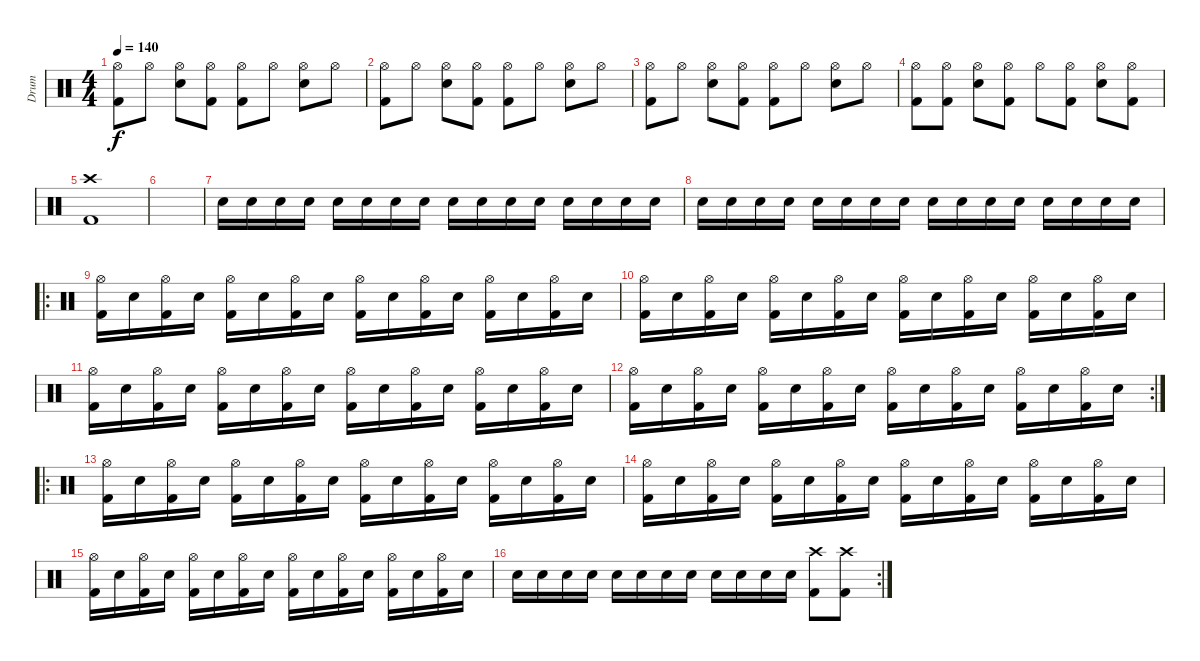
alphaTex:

\track ("Drum" "Drum") {instrument percussion}
\staff {score}
\articulation defaults
\ts (4 4)
\tempo 140
\clef neutral
\ks c
("Kick (hit) 2" "Hi-Hat (open)").8{dy f} "Hi-Hat (open)".8 ("Electric Snare (hit)" "Hi-Hat (open)").8 ("Kick (hit) 2" "Hi-Hat (open)").8 ("Kick (hit) 2" "Hi-Hat (open)").8 "Hi-Hat (open)".8 ("Electric Snare (hit)" "Hi-Hat (open)").8 "Hi-Hat (open)".8 |
("Kick (hit) 2" "Hi-Hat (open)").8 "Hi-Hat (open)".8 ("Electric Snare (hit)" "Hi-Hat (open)").8 ("Kick (hit) 2" "Hi-Hat (open)").8 ("Kick (hit) 2" "Hi-Hat (open)").8 "Hi-Hat (open)".8 ("Electric Snare (hit)" "Hi-Hat (open)").8 "Hi-Hat (open)".8 |
("Kick (hit) 2" "Hi-Hat (open)").8 "Hi-Hat (open)".8 ("Electric Snare (hit)" "Hi-Hat (open)").8 ("Kick (hit) 2" "Hi-Hat (open)").8 ("Kick (hit) 2" "Hi-Hat (open)").8 "Hi-Hat (open)".8 ("Electric Snare (hit)" "Hi-Hat (open)").8 "Hi-Hat (open)".8 |
("Kick (hit) 2" "Hi-Hat (open)").8 ("Kick (hit) 2" "Hi-Hat (open)").8 ("Electric Snare (hit)" "Hi-Hat (open)").8 ("Kick (hit) 2" "Hi-Hat (open)").8 "Hi-Hat (open)".8 ("Kick (hit) 2" "Hi-Hat (open)").8 ("Electric Snare (hit)" "Hi-Hat (open)").8 ("Kick (hit) 2" "Hi-Hat (open)").8 |
("Kick (hit) 2" "Crash high (hit)").1 |
|
"Electric Snare (hit)".16{volume 4} "Electric Snare (hit)".16 "Electric Snare (hit)".16 "Electric Snare (hit)".16{volume 13} "Electric Snare (hit)".16 "Electric Snare (hit)".16 "Electric Snare (hit)".16 "Electric Snare (hit)".16 "Electric Snare (hit)".16 "Electric Snare (hit)".16 "Electric Snare (hit)".16 "Electric Snare (hit)".16 "Electric Snare (hit)".16 "Electric Snare (hit)".16 "Electric Snare (hit)".16 "Electric Snare (hit)".16 |
"Electric Snare (hit)".16 "Electric Snare (hit)".16 "Electric Snare (hit)".16 "Electric Snare (hit)".16 "Electric Snare (hit)".16 "Electric Snare (hit)".16 "Electric Snare (hit)".16 "Electric Snare (hit)".16 "Electric Snare (hit)".16 "Electric Snare (hit)".16 "Electric Snare (hit)".16 "Electric Snare (hit)".16 "Electric Snare (hit)".16 "Electric Snare (hit)".16 "Electric Snare (hit)".16 "Electric Snare (hit)".16 |
\ro
("Kick (hit) 2" "Hi-Hat (open)").16 "Electric Snare (hit)".16 ("Kick (hit) 2" "Hi-Hat (open)").16 "Electric Snare (hit)".16 ("Kick (hit) 2" "Hi-Hat (open)").16 "Electric Snare (hit)".16 ("Kick (hit) 2" "Hi-Hat (open)").16 "Electric Snare (hit)".16 ("Kick (hit) 2" "Hi-Hat (open)").16 "Electric Snare (hit)".16 ("Kick (hit) 2" "Hi-Hat (open)").16 "Electric Snare (hit)".16 ("Kick (hit) 2" "Hi-Hat (open)").16 "Electric Snare (hit)".16 ("Kick (hit) 2" "Hi-Hat (open)").16 "Electric Snare (hit)".16 |
("Kick (hit) 2" "Hi-Hat (open)").16 "Electric Snare (hit)".16 ("Kick (hit) 2" "Hi-Hat (open)").16 "Electric Snare (hit)".16 ("Kick (hit) 2" "Hi-Hat (open)").16 "Electric Snare (hit)".16 ("Kick (hit) 2" "Hi-Hat (open)").16 "Electric Snare (hit)".16 ("Kick (hit) 2" "Hi-Hat (open)").16 "Electric Snare (hit)".16 ("Kick (hit) 2" "Hi-Hat (open)").16 "Electric Snare (hit)".16 ("Kick (hit) 2" "Hi-Hat (open)").16 "Electric Snare (hit)".16 ("Kick (hit) 2" "Hi-Hat (open)").16 "Electric Snare (hit)".16 |
("Kick (hit) 2" "Hi-Hat (open)").16 "Electric Snare (hit)".16 ("Kick (hit) 2" "Hi-Hat (open)").16 "Electric Snare (hit)".16 ("Kick (hit) 2" "Hi-Hat (open)").16 "Electric Snare (hit)".16 ("Kick (hit) 2" "Hi-Hat (open)").16 "Electric Snare (hit)".16 ("Kick (hit) 2" "Hi-Hat (open)").16 "Electric Snare (hit)".16 ("Kick (hit) 2" "Hi-Hat (open)").16 "Electric Snare (hit)".16 ("Kick (hit) 2" "Hi-Hat (open)").16 "Electric Snare (hit)".16 ("Kick (hit) 2" "Hi-Hat (open)").16 "Electric Snare (hit)".16 |
\rc 2
("Kick (hit) 2" "Hi-Hat (open)").16 "Electric Snare (hit)".16 ("Kick (hit) 2" "Hi-Hat (open)").16 "Electric Snare (hit)".16 ("Kick (hit) 2" "Hi-Hat (open)").16 "Electric Snare (hit)".16 ("Kick (hit) 2" "Hi-Hat (open)").16 "Electric Snare (hit)".16 ("Kick (hit) 2" "Hi-Hat (open)").16 "Electric Snare (hit)".16 ("Kick (hit) 2" "Hi-Hat (open)").16 "Electric Snare (hit)".16 ("Kick (hit) 2" "Hi-Hat (open)").16 "Electric Snare (hit)".16 ("Kick (hit) 2" "Hi-Hat (open)").16 "Electric Snare (hit)".16 |
\ro
("Kick (hit) 2" "Hi-Hat (open)").16 "Electric Snare (hit)".16 ("Kick (hit) 2" "Hi-Hat (open)").16 "Electric Snare (hit)".16 ("Kick (hit) 2" "Hi-Hat (open)").16 "Electric Snare (hit)".16 ("Kick (hit) 2" "Hi-Hat (open)").16 "Electric Snare (hit)".16 ("Kick (hit) 2" "Hi-Hat (open)").16 "Electric Snare (hit)".16 ("Kick (hit) 2" "Hi-Hat (open)").16 "Electric Snare (hit)".16 ("Kick (hit) 2" "Hi-Hat (open)").16 "Electric Snare (hit)".16 ("Kick (hit) 2" "Hi-Hat (open)").16 "Electric Snare (hit)".16 |
("Kick (hit) 2" "Hi-Hat (open)").16 "Electric Snare (hit)".16 ("Kick (hit) 2" "Hi-Hat (open)").16 "Electric Snare (hit)".16 ("Kick (hit) 2" "Hi-Hat (open)").16 "Electric Snare (hit)".16 ("Kick (hit) 2" "Hi-Hat (open)").16 "Electric Snare (hit)".16 ("Kick (hit) 2" "Hi-Hat (open)").16 "Electric Snare (hit)".16 ("Kick (hit) 2" "Hi-Hat (open)").16 "Electric Snare (hit)".16 ("Kick (hit) 2" "Hi-Hat (open)").16 "Electric Snare (hit)".16 ("Kick (hit) 2" "Hi-Hat (open)").16 "Electric Snare (hit)".16 |
("Kick (hit) 2" "Hi-Hat (open)").16 "Electric Snare (hit)".16 ("Kick (hit) 2" "Hi-Hat (open)").16 "Electric Snare (hit)".16 ("Kick (hit) 2" "Hi-Hat (open)").16 "Electric Snare (hit)".16 ("Kick (hit) 2" "Hi-Hat (open)").16 "Electric Snare (hit)".16 ("Kick (hit) 2" "Hi-Hat (open)").16 "Electric Snare (hit)".16 ("Kick (hit) 2" "Hi-Hat (open)").16 "Electric Snare (hit)".16 ("Kick (hit) 2" "Hi-Hat (open)").16 "Electric Snare (hit)".16 ("Kick (hit) 2" "Hi-Hat (open)").16 "Electric Snare (hit)".16 |
\rc 2 "Electric Snare (hit)".16 "Electric Snare (hit)".16 "Electric Snare (hit)".16 "Electric Snare (hit)".16 "Electric Snare (hit)".16 "Electric Snare (hit)".16 "Electric Snare (hit)".16 "Electric Snare (hit)".16 "Electric Snare (hit)".16 "Electric Snare (hit)".16 "Electric Snare (hit)".16 "Electric Snare (hit)".16
("Kick (hit) 2" "Crash high (hit)").8 ("Kick (hit) 2" "Crash high (hit)").8
